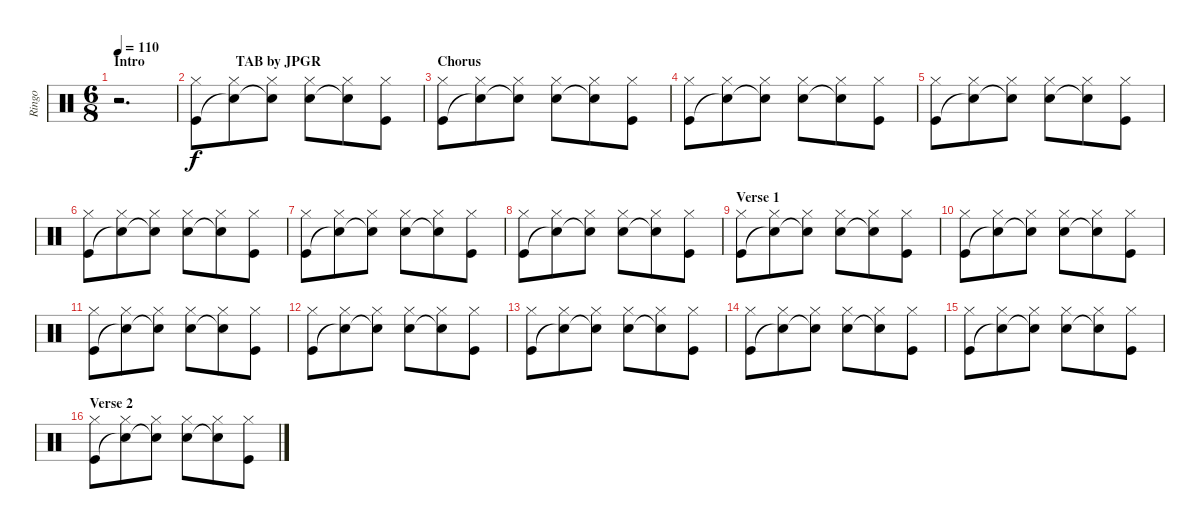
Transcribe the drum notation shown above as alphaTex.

\track ("Ringo" "Ringo") {instrument percussion}
\staff {score}
\articulation defaults
\ts (6 8)
\section ("" "Intro                          TAB by JPGR")
\tempo 110
\clef neutral
\ks c
r.2{d dy f} |
("Hi-Hat (closed)" "Kick (hit)").8 ("Hi-Hat (closed)" "Snare (hit)"{t}).8 ("Hi-Hat (closed)" "Snare (hit)"{t}).8 ("Hi-Hat (closed)" "Snare (hit) 2").8 ("Hi-Hat (closed)" "Snare (hit)"{t}).8 ("Hi-Hat (closed)" "Kick (hit)").8 |
\section ("" "Chorus")
("Hi-Hat (closed)" "Kick (hit)").8 ("Hi-Hat (closed)" "Snare (hit)"{t}).8 ("Hi-Hat (closed)" "Snare (hit)"{t}).8 ("Hi-Hat (closed)" "Snare (hit) 2").8 ("Hi-Hat (closed)" "Snare (hit)"{t}).8 ("Hi-Hat (closed)" "Kick (hit)").8 |
("Hi-Hat (closed)" "Kick (hit)").8 ("Hi-Hat (closed)" "Snare (hit)"{t}).8 ("Hi-Hat (closed)" "Snare (hit)"{t}).8 ("Hi-Hat (closed)" "Snare (hit) 2").8 ("Hi-Hat (closed)" "Snare (hit)"{t}).8 ("Hi-Hat (closed)" "Kick (hit)").8 |
("Hi-Hat (closed)" "Kick (hit)").8 ("Hi-Hat (closed)" "Snare (hit)"{t}).8 ("Hi-Hat (closed)" "Snare (hit)"{t}).8 ("Hi-Hat (closed)" "Snare (hit) 2").8 ("Hi-Hat (closed)" "Snare (hit)"{t}).8 ("Hi-Hat (closed)" "Kick (hit)").8 |
("Hi-Hat (closed)" "Kick (hit)").8 ("Hi-Hat (closed)" "Snare (hit)"{t}).8 ("Hi-Hat (closed)" "Snare (hit)"{t}).8 ("Hi-Hat (closed)" "Snare (hit) 2").8 ("Hi-Hat (closed)" "Snare (hit)"{t}).8 ("Hi-Hat (closed)" "Kick (hit)").8 |
("Hi-Hat (closed)" "Kick (hit)").8 ("Hi-Hat (closed)" "Snare (hit)"{t}).8 ("Hi-Hat (closed)" "Snare (hit)"{t}).8 ("Hi-Hat (closed)" "Snare (hit) 2").8 ("Hi-Hat (closed)" "Snare (hit)"{t}).8 ("Hi-Hat (closed)" "Kick (hit)").8 |
("Hi-Hat (closed)" "Kick (hit)").8 ("Hi-Hat (closed)" "Snare (hit)"{t}).8 ("Hi-Hat (closed)" "Snare (hit)"{t}).8 ("Hi-Hat (closed)" "Snare (hit) 2").8 ("Hi-Hat (closed)" "Snare (hit)"{t}).8 ("Hi-Hat (closed)" "Kick (hit)").8 |
\section ("" "Verse 1")
("Hi-Hat (closed)" "Kick (hit)").8 ("Hi-Hat (closed)" "Snare (hit)"{t}).8 ("Hi-Hat (closed)" "Snare (hit)"{t}).8 ("Hi-Hat (closed)" "Snare (hit) 2").8 ("Hi-Hat (closed)" "Snare (hit)"{t}).8 ("Hi-Hat (closed)" "Kick (hit)").8 |
("Hi-Hat (closed)" "Kick (hit)").8 ("Hi-Hat (closed)" "Snare (hit)"{t}).8 ("Hi-Hat (closed)" "Snare (hit)"{t}).8 ("Hi-Hat (closed)" "Snare (hit) 2").8 ("Hi-Hat (closed)" "Snare (hit)"{t}).8 ("Hi-Hat (closed)" "Kick (hit)").8 |
("Hi-Hat (closed)" "Kick (hit)").8 ("Hi-Hat (closed)" "Snare (hit)"{t}).8 ("Hi-Hat (closed)" "Snare (hit)"{t}).8 ("Hi-Hat (closed)" "Snare (hit) 2").8 ("Hi-Hat (closed)" "Snare (hit)"{t}).8 ("Hi-Hat (closed)" "Kick (hit)").8 |
("Hi-Hat (closed)" "Kick (hit)").8 ("Hi-Hat (closed)" "Snare (hit)"{t}).8 ("Hi-Hat (closed)" "Snare (hit)"{t}).8 ("Hi-Hat (closed)" "Snare (hit) 2").8 ("Hi-Hat (closed)" "Snare (hit)"{t}).8 ("Hi-Hat (closed)" "Kick (hit)").8 |
("Hi-Hat (closed)" "Kick (hit)").8 ("Hi-Hat (closed)" "Snare (hit)"{t}).8 ("Hi-Hat (closed)" "Snare (hit)"{t}).8 ("Hi-Hat (closed)" "Snare (hit) 2").8 ("Hi-Hat (closed)" "Snare (hit)"{t}).8 ("Hi-Hat (closed)" "Kick (hit)").8 |
("Hi-Hat (closed)" "Kick (hit)").8 ("Hi-Hat (closed)" "Snare (hit)"{t}).8 ("Hi-Hat (closed)" "Snare (hit)"{t}).8 ("Hi-Hat (closed)" "Snare (hit) 2").8 ("Hi-Hat (closed)" "Snare (hit)"{t}).8 ("Hi-Hat (closed)" "Kick (hit)").8 |
("Hi-Hat (closed)" "Kick (hit)").8 ("Hi-Hat (closed)" "Snare (hit)"{t}).8 ("Hi-Hat (closed)" "Snare (hit)"{t}).8 ("Hi-Hat (closed)" "Snare (hit) 2").8 ("Hi-Hat (closed)" "Snare (hit)"{t}).8 ("Hi-Hat (closed)" "Kick (hit)").8 |
\section ("" "Verse 2")
("Hi-Hat (closed)" "Kick (hit)").8 ("Hi-Hat (closed)" "Snare (hit)"{t}).8 ("Hi-Hat (closed)" "Snare (hit)"{t}).8 ("Hi-Hat (closed)" "Snare (hit) 2").8 ("Hi-Hat (closed)" "Snare (hit)"{t}).8 ("Hi-Hat (closed)" "Kick (hit)").8
